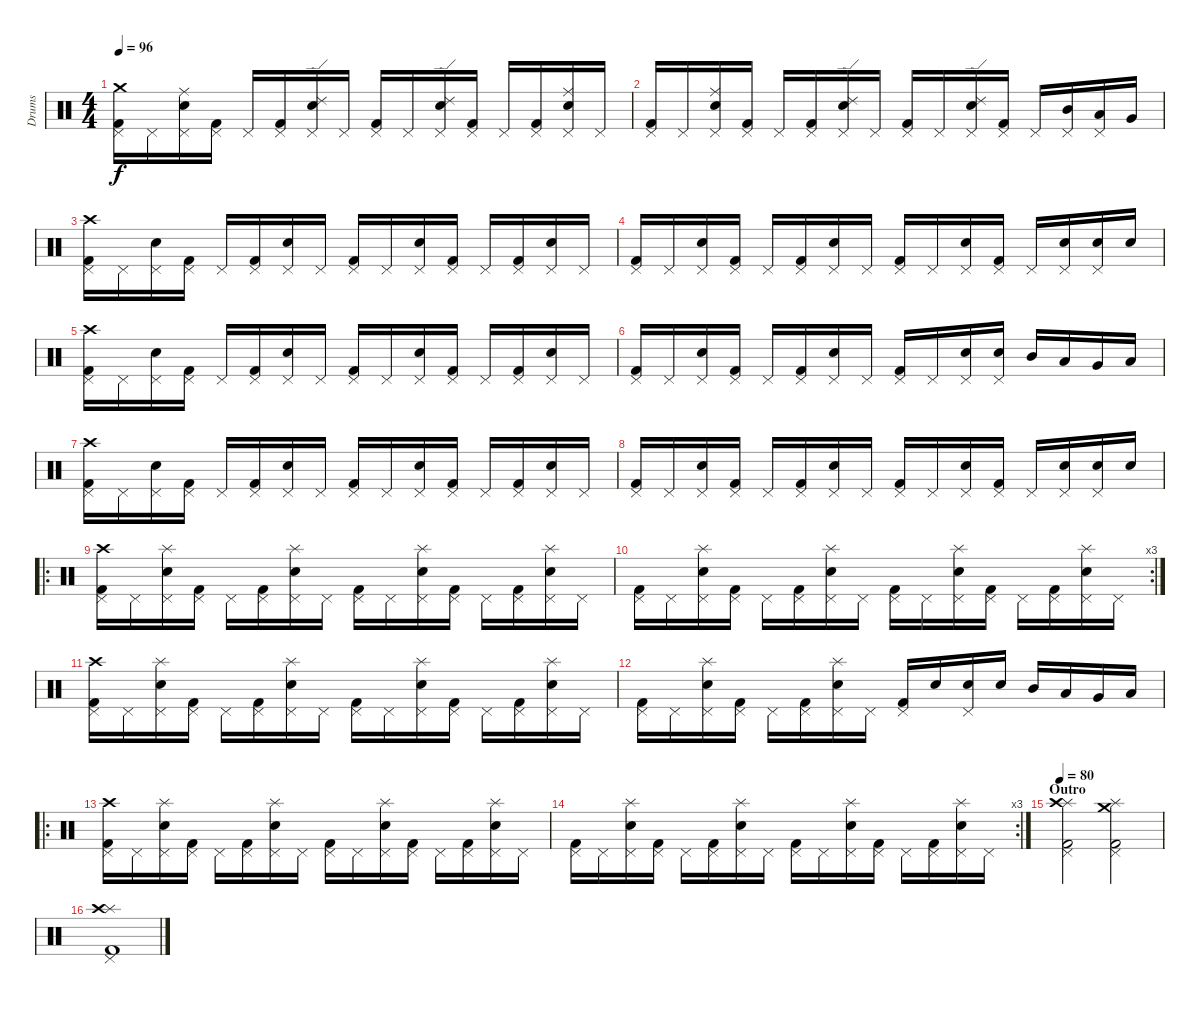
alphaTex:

\track ("Drums" "Drums") {instrument percussion}
\staff {score}
\articulation defaults
\ts (4 4)
\tempo 96
\clef neutral
\ks c
("Kick (hit) 2" "Pedal Hi-Hat (hit)" "Crash medium (hit)").16{dy f} "Pedal Hi-Hat (hit)".16 ("Snare (hit) 2" "Pedal Hi-Hat (hit)" "Ride (middle)").16 ("Kick (hit) 2" "Pedal Hi-Hat (hit)").16 "Pedal Hi-Hat (hit)".16 ("Kick (hit) 2" "Pedal Hi-Hat (hit)").16 ("Snare (hit) 2" "Pedal Hi-Hat (hit)" "Ride (edge) 2").16 "Pedal Hi-Hat (hit)".16 ("Kick (hit) 2" "Pedal Hi-Hat (hit)").16 "Pedal Hi-Hat (hit)".16 ("Snare (hit) 2" "Pedal Hi-Hat (hit)" "Ride (edge) 2").16 ("Kick (hit) 2" "Pedal Hi-Hat (hit)").16 "Pedal Hi-Hat (hit)".16 ("Kick (hit) 2" "Pedal Hi-Hat (hit)").16 ("Snare (hit) 2" "Pedal Hi-Hat (hit)" "Ride (middle)").16 "Pedal Hi-Hat (hit)".16 |
("Kick (hit) 2" "Pedal Hi-Hat (hit)").16 "Pedal Hi-Hat (hit)".16 ("Snare (hit) 2" "Pedal Hi-Hat (hit)" "Ride (middle)").16 ("Kick (hit) 2" "Pedal Hi-Hat (hit)").16 "Pedal Hi-Hat (hit)".16 ("Kick (hit) 2" "Pedal Hi-Hat (hit)").16 ("Snare (hit) 2" "Pedal Hi-Hat (hit)" "Ride (edge) 2").16 "Pedal Hi-Hat (hit)".16 ("Kick (hit) 2" "Pedal Hi-Hat (hit)").16 "Pedal Hi-Hat (hit)".16 ("Snare (hit) 2" "Pedal Hi-Hat (hit)" "Ride (edge) 2").16 ("Kick (hit) 2" "Pedal Hi-Hat (hit)").16 "Pedal Hi-Hat (hit)".16 ("Mid Tom (hit)" "Pedal Hi-Hat (hit)").16 ("Low Tom (hit)" "Pedal Hi-Hat (hit)").16 "Very Low Tom (hit)".16 |
("Kick (hit) 2" "Pedal Hi-Hat (hit)" "Crash high (hit)").16 "Pedal Hi-Hat (hit)".16 ("Snare (hit) 2" "Pedal Hi-Hat (hit)").16 ("Kick (hit) 2" "Pedal Hi-Hat (hit)").16 "Pedal Hi-Hat (hit)".16 ("Kick (hit) 2" "Pedal Hi-Hat (hit)").16 ("Snare (hit) 2" "Pedal Hi-Hat (hit)").16 "Pedal Hi-Hat (hit)".16 ("Kick (hit) 2" "Pedal Hi-Hat (hit)").16 "Pedal Hi-Hat (hit)".16 ("Snare (hit) 2" "Pedal Hi-Hat (hit)").16 ("Kick (hit) 2" "Pedal Hi-Hat (hit)").16 "Pedal Hi-Hat (hit)".16 ("Kick (hit) 2" "Pedal Hi-Hat (hit)").16 ("Snare (hit) 2" "Pedal Hi-Hat (hit)").16 "Pedal Hi-Hat (hit)".16 |
("Kick (hit) 2" "Pedal Hi-Hat (hit)").16 "Pedal Hi-Hat (hit)".16 ("Snare (hit) 2" "Pedal Hi-Hat (hit)").16 ("Kick (hit) 2" "Pedal Hi-Hat (hit)").16 "Pedal Hi-Hat (hit)".16 ("Kick (hit) 2" "Pedal Hi-Hat (hit)").16 ("Snare (hit) 2" "Pedal Hi-Hat (hit)").16 "Pedal Hi-Hat (hit)".16 ("Kick (hit) 2" "Pedal Hi-Hat (hit)").16 "Pedal Hi-Hat (hit)".16 ("Snare (hit) 2" "Pedal Hi-Hat (hit)").16 ("Kick (hit) 2" "Pedal Hi-Hat (hit)").16 "Pedal Hi-Hat (hit)".16 ("Snare (hit) 2" "Pedal Hi-Hat (hit)").16 ("Snare (hit) 2" "Pedal Hi-Hat (hit)").16 "Snare (hit) 2".16 |
("Kick (hit) 2" "Pedal Hi-Hat (hit)" "Crash high (hit)").16 "Pedal Hi-Hat (hit)".16 ("Snare (hit) 2" "Pedal Hi-Hat (hit)").16 ("Kick (hit) 2" "Pedal Hi-Hat (hit)").16 "Pedal Hi-Hat (hit)".16 ("Kick (hit) 2" "Pedal Hi-Hat (hit)").16 ("Snare (hit) 2" "Pedal Hi-Hat (hit)").16 "Pedal Hi-Hat (hit)".16 ("Kick (hit) 2" "Pedal Hi-Hat (hit)").16 "Pedal Hi-Hat (hit)".16 ("Snare (hit) 2" "Pedal Hi-Hat (hit)").16 ("Kick (hit) 2" "Pedal Hi-Hat (hit)").16 "Pedal Hi-Hat (hit)".16 ("Kick (hit) 2" "Pedal Hi-Hat (hit)").16 ("Snare (hit) 2" "Pedal Hi-Hat (hit)").16 "Pedal Hi-Hat (hit)".16 |
("Kick (hit) 2" "Pedal Hi-Hat (hit)").16 "Pedal Hi-Hat (hit)".16 ("Snare (hit) 2" "Pedal Hi-Hat (hit)").16 ("Kick (hit) 2" "Pedal Hi-Hat (hit)").16 "Pedal Hi-Hat (hit)".16 ("Kick (hit) 2" "Pedal Hi-Hat (hit)").16 ("Snare (hit) 2" "Pedal Hi-Hat (hit)").16 "Pedal Hi-Hat (hit)".16 ("Kick (hit) 2" "Pedal Hi-Hat (hit)").16 "Pedal Hi-Hat (hit)".16 ("Snare (hit) 2" "Pedal Hi-Hat (hit)").16 ("Snare (hit) 2" "Pedal Hi-Hat (hit)").16 "Mid Tom (hit)".16 "Low Tom (hit)".16 "Very Low Tom (hit)".16 "Low Floor Tom (hit)".16 |
("Kick (hit) 2" "Pedal Hi-Hat (hit)" "Crash high (hit)").16 "Pedal Hi-Hat (hit)".16 ("Snare (hit) 2" "Pedal Hi-Hat (hit)").16 ("Kick (hit) 2" "Pedal Hi-Hat (hit)").16 "Pedal Hi-Hat (hit)".16 ("Kick (hit) 2" "Pedal Hi-Hat (hit)").16 ("Snare (hit) 2" "Pedal Hi-Hat (hit)").16 "Pedal Hi-Hat (hit)".16 ("Kick (hit) 2" "Pedal Hi-Hat (hit)").16 "Pedal Hi-Hat (hit)".16 ("Snare (hit) 2" "Pedal Hi-Hat (hit)").16 ("Kick (hit) 2" "Pedal Hi-Hat (hit)").16 "Pedal Hi-Hat (hit)".16 ("Kick (hit) 2" "Pedal Hi-Hat (hit)").16 ("Snare (hit) 2" "Pedal Hi-Hat (hit)").16 "Pedal Hi-Hat (hit)".16 |
("Kick (hit) 2" "Pedal Hi-Hat (hit)").16 "Pedal Hi-Hat (hit)".16 ("Snare (hit) 2" "Pedal Hi-Hat (hit)").16 ("Kick (hit) 2" "Pedal Hi-Hat (hit)").16 "Pedal Hi-Hat (hit)".16 ("Kick (hit) 2" "Pedal Hi-Hat (hit)").16 ("Snare (hit) 2" "Pedal Hi-Hat (hit)").16 "Pedal Hi-Hat (hit)".16 ("Kick (hit) 2" "Pedal Hi-Hat (hit)").16 "Pedal Hi-Hat (hit)".16 ("Snare (hit) 2" "Pedal Hi-Hat (hit)").16 ("Kick (hit) 2" "Pedal Hi-Hat (hit)").16 "Pedal Hi-Hat (hit)".16 ("Snare (hit) 2" "Pedal Hi-Hat (hit)").16 ("Snare (hit) 2" "Pedal Hi-Hat (hit)").16 "Snare (hit) 2".16 |
\ro
("Kick (hit) 2" "Pedal Hi-Hat (hit)" "Crash high (hit)").16 "Pedal Hi-Hat (hit)".16 ("Snare (hit) 2" "Pedal Hi-Hat (hit)" "Splash (hit)").16 ("Kick (hit) 2" "Pedal Hi-Hat (hit)").16 "Pedal Hi-Hat (hit)".16 ("Kick (hit) 2" "Pedal Hi-Hat (hit)").16 ("Snare (hit) 2" "Pedal Hi-Hat (hit)" "Splash (hit)").16 "Pedal Hi-Hat (hit)".16 ("Kick (hit) 2" "Pedal Hi-Hat (hit)").16 "Pedal Hi-Hat (hit)".16 ("Snare (hit) 2" "Pedal Hi-Hat (hit)" "Splash (hit)").16 ("Kick (hit) 2" "Pedal Hi-Hat (hit)").16 "Pedal Hi-Hat (hit)".16 ("Kick (hit) 2" "Pedal Hi-Hat (hit)").16 ("Snare (hit) 2" "Pedal Hi-Hat (hit)" "Splash (hit)").16 "Pedal Hi-Hat (hit)".16 |
\rc 3
("Kick (hit) 2" "Pedal Hi-Hat (hit)").16 "Pedal Hi-Hat (hit)".16 ("Snare (hit) 2" "Pedal Hi-Hat (hit)" "Splash (hit)").16 ("Kick (hit) 2" "Pedal Hi-Hat (hit)").16 "Pedal Hi-Hat (hit)".16 ("Kick (hit) 2" "Pedal Hi-Hat (hit)").16 ("Snare (hit) 2" "Pedal Hi-Hat (hit)" "Splash (hit)").16 "Pedal Hi-Hat (hit)".16 ("Kick (hit) 2" "Pedal Hi-Hat (hit)").16 "Pedal Hi-Hat (hit)".16 ("Snare (hit) 2" "Pedal Hi-Hat (hit)" "Splash (hit)").16 ("Kick (hit) 2" "Pedal Hi-Hat (hit)").16 "Pedal Hi-Hat (hit)".16 ("Kick (hit) 2" "Pedal Hi-Hat (hit)").16 ("Snare (hit) 2" "Pedal Hi-Hat (hit)" "Splash (hit)").16 "Pedal Hi-Hat (hit)".16 |
("Kick (hit) 2" "Pedal Hi-Hat (hit)" "Crash high (hit)").16 "Pedal Hi-Hat (hit)".16 ("Snare (hit) 2" "Pedal Hi-Hat (hit)" "Splash (hit)").16 ("Kick (hit) 2" "Pedal Hi-Hat (hit)").16 "Pedal Hi-Hat (hit)".16 ("Kick (hit) 2" "Pedal Hi-Hat (hit)").16 ("Snare (hit) 2" "Pedal Hi-Hat (hit)" "Splash (hit)").16 "Pedal Hi-Hat (hit)".16 ("Kick (hit) 2" "Pedal Hi-Hat (hit)").16 "Pedal Hi-Hat (hit)".16 ("Snare (hit) 2" "Pedal Hi-Hat (hit)" "Splash (hit)").16 ("Kick (hit) 2" "Pedal Hi-Hat (hit)").16 "Pedal Hi-Hat (hit)".16 ("Kick (hit) 2" "Pedal Hi-Hat (hit)").16 ("Snare (hit) 2" "Pedal Hi-Hat (hit)" "Splash (hit)").16 "Pedal Hi-Hat (hit)".16 |
("Kick (hit) 2" "Pedal Hi-Hat (hit)").16 "Pedal Hi-Hat (hit)".16 ("Snare (hit) 2" "Pedal Hi-Hat (hit)" "Splash (hit)").16 ("Kick (hit) 2" "Pedal Hi-Hat (hit)").16 "Pedal Hi-Hat (hit)".16 ("Kick (hit) 2" "Pedal Hi-Hat (hit)").16 ("Snare (hit) 2" "Pedal Hi-Hat (hit)" "Splash (hit)").16 "Pedal Hi-Hat (hit)".16 ("Kick (hit) 2" "Pedal Hi-Hat (hit)").16 "Snare (hit) 2".16 ("Snare (hit) 2" "Pedal Hi-Hat (hit)").16 "Snare (hit) 2".16 "Mid Tom (hit)".16 "Low Tom (hit)".16 "Very Low Tom (hit)".16 "Low Floor Tom (hit)".16 |
\ro
("Kick (hit) 2" "Pedal Hi-Hat (hit)" "Crash high (hit)").16 "Pedal Hi-Hat (hit)".16 ("Snare (hit) 2" "Pedal Hi-Hat (hit)" "Splash (hit)").16 ("Kick (hit) 2" "Pedal Hi-Hat (hit)").16 "Pedal Hi-Hat (hit)".16 ("Kick (hit) 2" "Pedal Hi-Hat (hit)").16 ("Snare (hit) 2" "Pedal Hi-Hat (hit)" "Splash (hit)").16 "Pedal Hi-Hat (hit)".16 ("Kick (hit) 2" "Pedal Hi-Hat (hit)").16 "Pedal Hi-Hat (hit)".16 ("Snare (hit) 2" "Pedal Hi-Hat (hit)" "Splash (hit)").16 ("Kick (hit) 2" "Pedal Hi-Hat (hit)").16 "Pedal Hi-Hat (hit)".16 ("Kick (hit) 2" "Pedal Hi-Hat (hit)").16 ("Snare (hit) 2" "Pedal Hi-Hat (hit)" "Splash (hit)").16 "Pedal Hi-Hat (hit)".16 |
\rc 3
("Kick (hit) 2" "Pedal Hi-Hat (hit)").16 "Pedal Hi-Hat (hit)".16 ("Snare (hit) 2" "Pedal Hi-Hat (hit)" "Splash (hit)").16 ("Kick (hit) 2" "Pedal Hi-Hat (hit)").16 "Pedal Hi-Hat (hit)".16 ("Kick (hit) 2" "Pedal Hi-Hat (hit)").16 ("Snare (hit) 2" "Pedal Hi-Hat (hit)" "Splash (hit)").16 "Pedal Hi-Hat (hit)".16 ("Kick (hit) 2" "Pedal Hi-Hat (hit)").16 "Pedal Hi-Hat (hit)".16 ("Snare (hit) 2" "Pedal Hi-Hat (hit)" "Splash (hit)").16 ("Kick (hit) 2" "Pedal Hi-Hat (hit)").16 "Pedal Hi-Hat (hit)".16 ("Kick (hit) 2" "Pedal Hi-Hat (hit)").16 ("Snare (hit) 2" "Pedal Hi-Hat (hit)" "Splash (hit)").16 "Pedal Hi-Hat (hit)".16 |
\section ("" "Outro")
\tempo 80
("Kick (hit) 2" "Pedal Hi-Hat (hit)" "Splash (hit)" "Crash high (hit)").2 ("Kick (hit) 2" "Pedal Hi-Hat (hit)" "Splash (hit)" "Crash medium (hit)").2 |
("Kick (hit) 2" "Pedal Hi-Hat (hit)" "Splash (hit)" "Crash high (hit)").1
